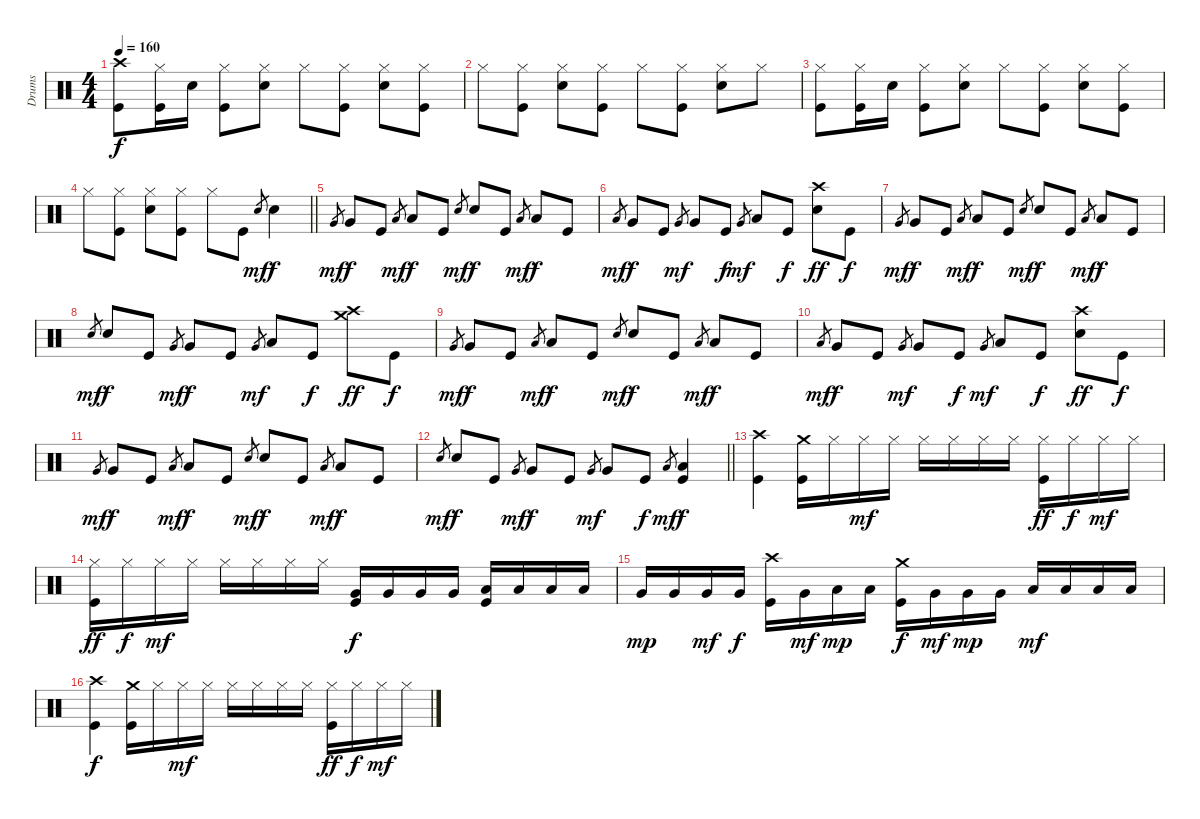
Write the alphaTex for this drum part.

\track ("Drums" "Drums") {instrument percussion}
\staff {score}
\articulation defaults
\ts (4 4)
\tempo 160
\clef neutral
\ks c
("Crash high (hit)" "Kick (hit)").8{dy f} ("Hi-Hat (closed)" "Kick (hit)").16 "Snare (hit) 2".16 ("Hi-Hat (closed)" "Kick (hit)").8 ("Hi-Hat (closed)" "Snare (hit) 2").8 "Hi-Hat (closed)".8 ("Hi-Hat (closed)" "Kick (hit)").8 ("Hi-Hat (closed)" "Snare (hit) 2").8 ("Hi-Hat (closed)" "Kick (hit)").8 |
"Hi-Hat (closed)".8 ("Hi-Hat (closed)" "Kick (hit)").8 ("Hi-Hat (closed)" "Snare (hit) 2").8 ("Hi-Hat (closed)" "Kick (hit)").8 "Hi-Hat (closed)".8 ("Hi-Hat (closed)" "Kick (hit)").8 ("Hi-Hat (closed)" "Snare (hit) 2").8 "Hi-Hat (closed)".8 |
("Hi-Hat (closed)" "Kick (hit)").8 ("Hi-Hat (closed)" "Kick (hit)").16 "Snare (hit) 2".16 ("Hi-Hat (closed)" "Kick (hit)").8 ("Hi-Hat (closed)" "Snare (hit) 2").8 "Hi-Hat (closed)".8 ("Hi-Hat (closed)" "Kick (hit)").8 ("Hi-Hat (closed)" "Snare (hit) 2").8 ("Hi-Hat (closed)" "Kick (hit)").8 |
\barLineRight lightlight "Hi-Hat (closed)".8
("Hi-Hat (closed)" "Kick (hit)").8 ("Hi-Hat (closed)" "Snare (hit) 2").8 ("Hi-Hat (closed)" "Kick (hit)").8 "Hi-Hat (closed)".8 "Kick (hit)".8 "Snare (hit) 2".8{gr dy mf} "Snare (hit) 2".4{dy f} |
"Very Low Tom (hit)".8{gr dy mf} "Very Low Tom (hit)".8{dy f} "Kick (hit)".8 "Low Floor Tom (hit)".8{gr dy mf} "Low Floor Tom (hit)".8{dy f} "Kick (hit)".8 "Snare (hit) 2".8{gr dy mf} "Snare (hit) 2".8{dy f} "Kick (hit)".8 "Low Tom (hit)".8{gr dy mf} "Low Tom (hit)".8{dy f} "Kick (hit)".8 |
"Low Tom (hit)".8{gr dy mf} "Very Low Tom (hit)".8{dy f} "Kick (hit)".8 "Very Low Tom (hit)".8{gr dy mf} "Very Low Tom (hit)".8 "Kick (hit)".8{dy f} "Very Low Tom (hit)".8{gr dy mf} "Low Floor Tom (hit)".8 "Kick (hit)".8{dy f} ("Crash high (hit)" "Snare (hit) 2").8{dy ff} "Kick (hit)".8{dy f} |
"Very Low Tom (hit)".8{gr dy mf} "Very Low Tom (hit)".8{dy f} "Kick (hit)".8 "Low Floor Tom (hit)".8{gr dy mf} "Low Floor Tom (hit)".8{dy f} "Kick (hit)".8 "Snare (hit) 2".8{gr dy mf} "Snare (hit) 2".8{dy f} "Kick (hit)".8 "Low Tom (hit)".8{gr dy mf} "Low Tom (hit)".8{dy f} "Kick (hit)".8 |
"Snare (hit) 2".8{gr dy mf} "Snare (hit) 2".8{dy f} "Kick (hit)".8 "Very Low Tom (hit)".8{gr dy mf} "Very Low Tom (hit)".8{dy f} "Kick (hit)".8 "Very Low Tom (hit)".8{gr dy mf} "Low Floor Tom (hit)".8 "Kick (hit)".8{dy f} ("Crash high (hit)" "Crash medium (hit)").8{dy ff} "Kick (hit)".8{dy f} |
"Very Low Tom (hit)".8{gr dy mf} "Very Low Tom (hit)".8{dy f} "Kick (hit)".8 "Low Floor Tom (hit)".8{gr dy mf} "Low Floor Tom (hit)".8{dy f} "Kick (hit)".8 "Snare (hit) 2".8{gr dy mf} "Snare (hit) 2".8{dy f} "Kick (hit)".8 "Low Tom (hit)".8{gr dy mf} "Low Tom (hit)".8{dy f} "Kick (hit)".8 |
"Low Tom (hit)".8{gr dy mf} "Very Low Tom (hit)".8{dy f} "Kick (hit)".8 "Very Low Tom (hit)".8{gr dy mf} "Very Low Tom (hit)".8 "Kick (hit)".8{dy f} "Very Low Tom (hit)".8{gr dy mf} "Low Floor Tom (hit)".8 "Kick (hit)".8{dy f} ("Crash high (hit)" "Snare (hit) 2").8{dy ff} "Kick (hit)".8{dy f} |
"Very Low Tom (hit)".8{gr dy mf} "Very Low Tom (hit)".8{dy f} "Kick (hit)".8 "Low Floor Tom (hit)".8{gr dy mf} "Low Floor Tom (hit)".8{dy f} "Kick (hit)".8 "Snare (hit) 2".8{gr dy mf} "Snare (hit) 2".8{dy f} "Kick (hit)".8 "Low Tom (hit)".8{gr dy mf} "Low Tom (hit)".8{dy f} "Kick (hit)".8 |
\barLineRight lightlight "Snare (hit) 2".8{gr dy mf} "Snare (hit) 2".8{dy f} "Kick (hit)".8 "Very Low Tom (hit)".8{gr dy mf} "Very Low Tom (hit)".8{dy f} "Kick (hit)".8 "Very Low Tom (hit)".8{gr dy mf} "Very Low Tom (hit)".8 "Kick (hit)".8{dy f} "Low Floor Tom (hit)".8{gr dy mf}
("Low Floor Tom (hit)" "Kick (hit)").4{dy f} |
("Crash high (hit)" "Kick (hit)").4 ("Crash medium (hit)" "Kick (hit)").16 "Hi-Hat (closed)".16 "Hi-Hat (closed)".16{dy mf} "Hi-Hat (closed)".16 "Hi-Hat (closed)".16 "Hi-Hat (closed)".16 "Hi-Hat (closed)".16 "Hi-Hat (closed)".16 ("Hi-Hat (closed)" "Kick (hit)").16{dy ff} "Hi-Hat (closed)".16{dy f} "Hi-Hat (closed)".16{dy mf} "Hi-Hat (closed)".16 |
("Hi-Hat (closed)" "Kick (hit)").16{dy ff} "Hi-Hat (closed)".16{dy f} "Hi-Hat (closed)".16{dy mf} "Hi-Hat (closed)".16 "Hi-Hat (closed)".16 "Hi-Hat (closed)".16 "Hi-Hat (closed)".16 "Hi-Hat (closed)".16 ("Very Low Tom (hit)" "Kick (hit)").16{dy f} "Very Low Tom (hit)".16 "Very Low Tom (hit)".16 "Very Low Tom (hit)".16 ("Low Floor Tom (hit)" "Kick (hit)").16 "Low Floor Tom (hit)".16 "Low Floor Tom (hit)".16 "Low Floor Tom (hit)".16 |
"Very Low Tom (hit)".16{dy mp} "Very Low Tom (hit)".16 "Very Low Tom (hit)".16{dy mf} "Very Low Tom (hit)".16{dy f} ("Crash high (hit)" "Kick (hit)").16 "Very Low Tom (hit)".16{dy mf} "Low Floor Tom (hit)".16{dy mp} "Low Floor Tom (hit)".16 ("Crash medium (hit)" "Kick (hit)").16{dy f} "Very Low Tom (hit)".16{dy mf} "Very Low Tom (hit)".16{dy mp} "Very Low Tom (hit)".16 "Low Floor Tom (hit)".16{dy mf} "Low Floor Tom (hit)".16 "Low Floor Tom (hit)".16 "Low Floor Tom (hit)".16 |
("Crash high (hit)" "Kick (hit)").4{dy f} ("Crash medium (hit)" "Kick (hit)").16 "Hi-Hat (closed)".16 "Hi-Hat (closed)".16{dy mf} "Hi-Hat (closed)".16 "Hi-Hat (closed)".16 "Hi-Hat (closed)".16 "Hi-Hat (closed)".16 "Hi-Hat (closed)".16 ("Hi-Hat (closed)" "Kick (hit)").16{dy ff} "Hi-Hat (closed)".16{dy f} "Hi-Hat (closed)".16{dy mf} "Hi-Hat (closed)".16
